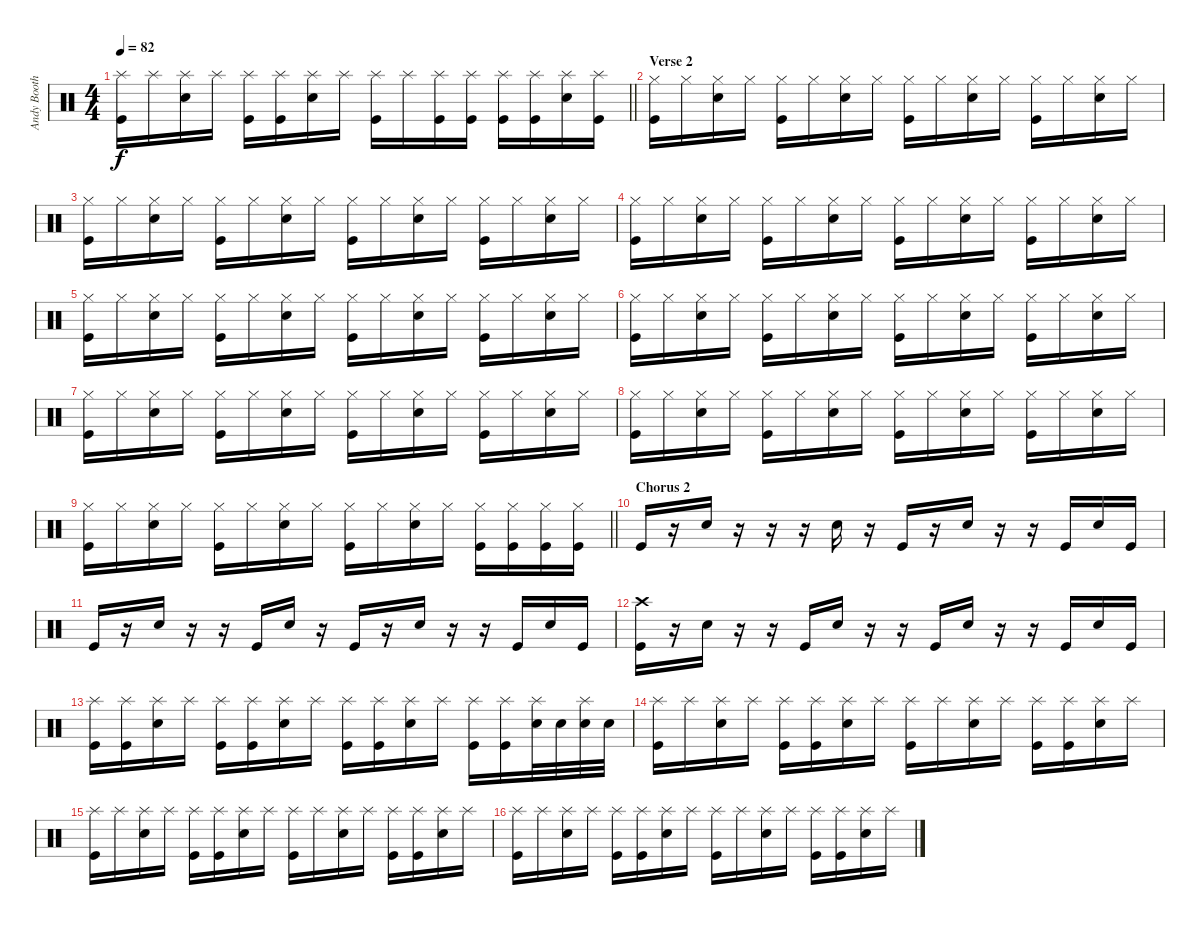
\track ("Andy Booth" "Andy Booth") {instrument percussion}
\staff {score}
\articulation defaults
\ts (4 4)
\tempo 82
\clef neutral
\barLineRight lightlight
\ks c
("Splash (hit)" "Kick (hit)").16{dy f} "Splash (hit)".16 ("Splash (hit)" "Electric Snare (hit)").16 "Splash (hit)".16 ("Splash (hit)" "Kick (hit)").16 ("Splash (hit)" "Kick (hit)").16 ("Splash (hit)" "Electric Snare (hit)").16 "Splash (hit)".16 ("Splash (hit)" "Kick (hit)").16 "Splash (hit)".16 ("Splash (hit)" "Kick (hit)").16 ("Splash (hit)" "Kick (hit)").16 ("Splash (hit)" "Kick (hit)").16 ("Splash (hit)" "Kick (hit)").16 ("Splash (hit)" "Electric Snare (hit)").16 ("Splash (hit)" "Kick (hit)").16 |
\section ("" "Verse 2")
("Hi-Hat (closed)" "Kick (hit)").16 "Hi-Hat (closed)".16 ("Hi-Hat (closed)" "Electric Snare (hit)").16 "Hi-Hat (closed)".16 ("Hi-Hat (closed)" "Kick (hit)").16 "Hi-Hat (closed)".16 ("Hi-Hat (closed)" "Electric Snare (hit)").16 "Hi-Hat (closed)".16 ("Hi-Hat (closed)" "Kick (hit)").16 "Hi-Hat (closed)".16 ("Hi-Hat (closed)" "Electric Snare (hit)").16 "Hi-Hat (closed)".16 ("Hi-Hat (closed)" "Kick (hit)").16 "Hi-Hat (closed)".16 ("Hi-Hat (closed)" "Electric Snare (hit)").16 "Hi-Hat (closed)".16 |
("Hi-Hat (closed)" "Kick (hit)").16 "Hi-Hat (closed)".16 ("Hi-Hat (closed)" "Electric Snare (hit)").16 "Hi-Hat (closed)".16 ("Hi-Hat (closed)" "Kick (hit)").16 "Hi-Hat (closed)".16 ("Hi-Hat (closed)" "Electric Snare (hit)").16 "Hi-Hat (closed)".16 ("Hi-Hat (closed)" "Kick (hit)").16 "Hi-Hat (closed)".16 ("Hi-Hat (closed)" "Electric Snare (hit)").16 "Hi-Hat (closed)".16 ("Hi-Hat (closed)" "Kick (hit)").16 "Hi-Hat (closed)".16 ("Hi-Hat (closed)" "Electric Snare (hit)").16 "Hi-Hat (closed)".16 |
("Hi-Hat (closed)" "Kick (hit)").16 "Hi-Hat (closed)".16 ("Hi-Hat (closed)" "Electric Snare (hit)").16 "Hi-Hat (closed)".16 ("Hi-Hat (closed)" "Kick (hit)").16 "Hi-Hat (closed)".16 ("Hi-Hat (closed)" "Electric Snare (hit)").16 "Hi-Hat (closed)".16 ("Hi-Hat (closed)" "Kick (hit)").16 "Hi-Hat (closed)".16 ("Hi-Hat (closed)" "Electric Snare (hit)").16 "Hi-Hat (closed)".16 ("Hi-Hat (closed)" "Kick (hit)").16 "Hi-Hat (closed)".16 ("Hi-Hat (closed)" "Electric Snare (hit)").16 "Hi-Hat (closed)".16 |
("Hi-Hat (closed)" "Kick (hit)").16 "Hi-Hat (closed)".16 ("Hi-Hat (closed)" "Electric Snare (hit)").16 "Hi-Hat (closed)".16 ("Hi-Hat (closed)" "Kick (hit)").16 "Hi-Hat (closed)".16 ("Hi-Hat (closed)" "Electric Snare (hit)").16 "Hi-Hat (closed)".16 ("Hi-Hat (closed)" "Kick (hit)").16 "Hi-Hat (closed)".16 ("Hi-Hat (closed)" "Electric Snare (hit)").16 "Hi-Hat (closed)".16 ("Hi-Hat (closed)" "Kick (hit)").16 "Hi-Hat (closed)".16 ("Hi-Hat (closed)" "Electric Snare (hit)").16 "Hi-Hat (closed)".16 |
("Hi-Hat (closed)" "Kick (hit)").16 "Hi-Hat (closed)".16 ("Hi-Hat (closed)" "Electric Snare (hit)").16 "Hi-Hat (closed)".16 ("Hi-Hat (closed)" "Kick (hit)").16 "Hi-Hat (closed)".16 ("Hi-Hat (closed)" "Electric Snare (hit)").16 "Hi-Hat (closed)".16 ("Hi-Hat (closed)" "Kick (hit)").16 "Hi-Hat (closed)".16 ("Hi-Hat (closed)" "Electric Snare (hit)").16 "Hi-Hat (closed)".16 ("Hi-Hat (closed)" "Kick (hit)").16 "Hi-Hat (closed)".16 ("Hi-Hat (closed)" "Electric Snare (hit)").16 "Hi-Hat (closed)".16 |
("Hi-Hat (closed)" "Kick (hit)").16 "Hi-Hat (closed)".16 ("Hi-Hat (closed)" "Electric Snare (hit)").16 "Hi-Hat (closed)".16 ("Hi-Hat (closed)" "Kick (hit)").16 "Hi-Hat (closed)".16 ("Hi-Hat (closed)" "Electric Snare (hit)").16 "Hi-Hat (closed)".16 ("Hi-Hat (closed)" "Kick (hit)").16 "Hi-Hat (closed)".16 ("Hi-Hat (closed)" "Electric Snare (hit)").16 "Hi-Hat (closed)".16 ("Hi-Hat (closed)" "Kick (hit)").16 "Hi-Hat (closed)".16 ("Hi-Hat (closed)" "Electric Snare (hit)").16 "Hi-Hat (closed)".16 |
("Hi-Hat (closed)" "Kick (hit)").16 "Hi-Hat (closed)".16 ("Hi-Hat (closed)" "Electric Snare (hit)").16 "Hi-Hat (closed)".16 ("Hi-Hat (closed)" "Kick (hit)").16 "Hi-Hat (closed)".16 ("Hi-Hat (closed)" "Electric Snare (hit)").16 "Hi-Hat (closed)".16 ("Hi-Hat (closed)" "Kick (hit)").16 "Hi-Hat (closed)".16 ("Hi-Hat (closed)" "Electric Snare (hit)").16 "Hi-Hat (closed)".16 ("Hi-Hat (closed)" "Kick (hit)").16 "Hi-Hat (closed)".16 ("Hi-Hat (closed)" "Electric Snare (hit)").16 "Hi-Hat (closed)".16 |
\barLineRight lightlight
("Hi-Hat (closed)" "Kick (hit)").16 "Hi-Hat (closed)".16 ("Hi-Hat (closed)" "Electric Snare (hit)").16 "Hi-Hat (closed)".16 ("Hi-Hat (closed)" "Kick (hit)").16 "Hi-Hat (closed)".16 ("Hi-Hat (closed)" "Electric Snare (hit)").16 "Hi-Hat (closed)".16 ("Hi-Hat (closed)" "Kick (hit)").16 "Hi-Hat (closed)".16 ("Hi-Hat (closed)" "Electric Snare (hit)").16 "Hi-Hat (closed)".16 ("Hi-Hat (closed)" "Kick (hit)").16 ("Hi-Hat (closed)" "Kick (hit)").16 ("Hi-Hat (closed)" "Kick (hit)").16 ("Hi-Hat (closed)" "Kick (hit)").16 |
\section ("" "Chorus 2")
"Kick (hit)".16 r.16 "Electric Snare (hit)".16 r.16 r.16 r.16 "Electric Snare (hit)".16 r.16 "Kick (hit)".16 r.16 "Electric Snare (hit)".16 r.16 r.16 "Kick (hit)".16 "Electric Snare (hit)".16 "Kick (hit)".16 |
"Kick (hit)".16 r.16 "Electric Snare (hit)".16 r.16 r.16 "Kick (hit)".16 "Electric Snare (hit)".16 r.16 "Kick (hit)".16 r.16 "Electric Snare (hit)".16 r.16 r.16 "Kick (hit)".16 "Electric Snare (hit)".16 "Kick (hit)".16 |
("Crash high (hit)" "Kick (hit)").16 r.16 "Electric Snare (hit)".16 r.16 r.16 "Kick (hit)".16 "Electric Snare (hit)".16 r.16 r.16 "Kick (hit)".16 "Electric Snare (hit)".16 r.16 r.16 "Kick (hit)".16 "Electric Snare (hit)".16 "Kick (hit)".16 |
("Splash (hit)" "Kick (hit)").16 ("Splash (hit)" "Kick (hit)").16 ("Splash (hit)" "Electric Snare (hit)").16 "Splash (hit)".16 ("Splash (hit)" "Kick (hit)").16 ("Splash (hit)" "Kick (hit)").16 ("Splash (hit)" "Electric Snare (hit)").16 "Splash (hit)".16 ("Splash (hit)" "Kick (hit)").16 ("Splash (hit)" "Kick (hit)").16 ("Splash (hit)" "Electric Snare (hit)").16 "Splash (hit)".16 ("Splash (hit)" "Kick (hit)").16 ("Splash (hit)" "Kick (hit)").16 ("Splash (hit)" "Electric Snare (hit)").32 "Electric Snare (hit)".32 ("Splash (hit)" "Electric Snare (hit)").32 "Electric Snare (hit)".32 |
("Splash (hit)" "Kick (hit)").16 "Splash (hit)".16 ("Splash (hit)" "Electric Snare (hit)").16 "Splash (hit)".16 ("Splash (hit)" "Kick (hit)").16 ("Splash (hit)" "Kick (hit)").16 ("Splash (hit)" "Electric Snare (hit)").16 "Splash (hit)".16 ("Splash (hit)" "Kick (hit)").16 "Splash (hit)".16 ("Splash (hit)" "Electric Snare (hit)").16 "Splash (hit)".16 ("Splash (hit)" "Kick (hit)").16 ("Splash (hit)" "Kick (hit)").16 ("Splash (hit)" "Electric Snare (hit)").16 "Splash (hit)".16 |
("Splash (hit)" "Kick (hit)").16 "Splash (hit)".16 ("Splash (hit)" "Electric Snare (hit)").16 "Splash (hit)".16 ("Splash (hit)" "Kick (hit)").16 ("Splash (hit)" "Kick (hit)").16 ("Splash (hit)" "Electric Snare (hit)").16 "Splash (hit)".16 ("Splash (hit)" "Kick (hit)").16 "Splash (hit)".16 ("Splash (hit)" "Electric Snare (hit)").16 "Splash (hit)".16 ("Splash (hit)" "Kick (hit)").16 ("Splash (hit)" "Kick (hit)").16 ("Splash (hit)" "Electric Snare (hit)").16 "Splash (hit)".16 |
("Splash (hit)" "Kick (hit)").16 "Splash (hit)".16 ("Splash (hit)" "Electric Snare (hit)").16 "Splash (hit)".16 ("Splash (hit)" "Kick (hit)").16 ("Splash (hit)" "Kick (hit)").16 ("Splash (hit)" "Electric Snare (hit)").16 "Splash (hit)".16 ("Splash (hit)" "Kick (hit)").16 "Splash (hit)".16 ("Splash (hit)" "Electric Snare (hit)").16 "Splash (hit)".16 ("Splash (hit)" "Kick (hit)").16 ("Splash (hit)" "Kick (hit)").16 ("Splash (hit)" "Electric Snare (hit)").16 "Splash (hit)".16
